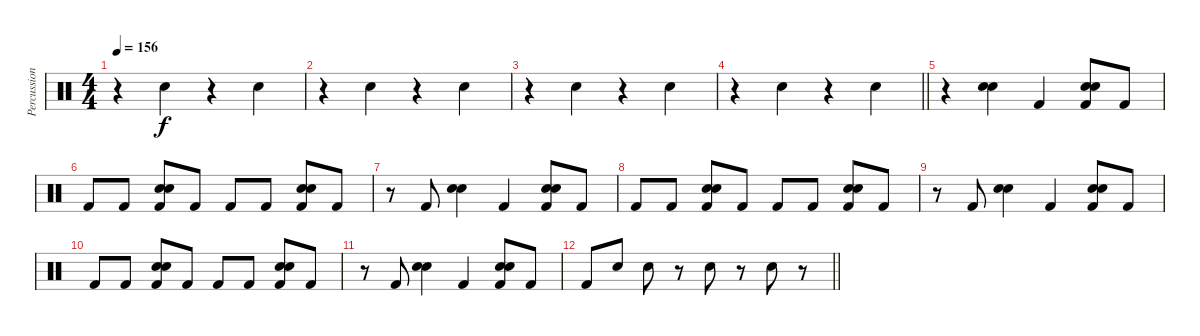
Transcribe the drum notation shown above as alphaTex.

\track ("Percussion" "Percussion") {instrument percussion}
\staff {score}
\articulation defaults
\ts (4 4)
\tempo 156
\clef neutral
\ks c
r.4{dy f} "Hand Clap (hit)".4 r.4 "Hand Clap (hit)".4 |
r.4 "Hand Clap (hit)".4 r.4 "Hand Clap (hit)".4 |
r.4 "Hand Clap (hit)".4 r.4 "Hand Clap (hit)".4 |
\barLineRight lightlight
r.4 "Hand Clap (hit)".4 r.4 "Hand Clap (hit)".4 |
r.4 ("Hand Clap (hit)" "Electric Snare (hit)").4 "Kick (hit) 2".4 ("Hand Clap (hit)" "Electric Snare (hit)" "Kick (hit) 2").8 "Kick (hit) 2".8 |
"Kick (hit) 2".8 "Kick (hit) 2".8 ("Hand Clap (hit)" "Electric Snare (hit)" "Kick (hit) 2").8 "Kick (hit) 2".8 "Kick (hit) 2".8 "Kick (hit) 2".8 ("Hand Clap (hit)" "Electric Snare (hit)" "Kick (hit) 2").8 "Kick (hit) 2".8 |
r.8 "Kick (hit) 2".8 ("Hand Clap (hit)" "Electric Snare (hit)").4 "Kick (hit) 2".4 ("Hand Clap (hit)" "Electric Snare (hit)" "Kick (hit) 2").8 "Kick (hit) 2".8 |
"Kick (hit) 2".8 "Kick (hit) 2".8 ("Hand Clap (hit)" "Electric Snare (hit)" "Kick (hit) 2").8 "Kick (hit) 2".8 "Kick (hit) 2".8 "Kick (hit) 2".8 ("Hand Clap (hit)" "Electric Snare (hit)" "Kick (hit) 2").8 "Kick (hit) 2".8 |
r.8 "Kick (hit) 2".8 ("Hand Clap (hit)" "Electric Snare (hit)").4 "Kick (hit) 2".4 ("Hand Clap (hit)" "Electric Snare (hit)" "Kick (hit) 2").8 "Kick (hit) 2".8 |
"Kick (hit) 2".8 "Kick (hit) 2".8 ("Hand Clap (hit)" "Electric Snare (hit)" "Kick (hit) 2").8 "Kick (hit) 2".8 "Kick (hit) 2".8 "Kick (hit) 2".8 ("Hand Clap (hit)" "Electric Snare (hit)" "Kick (hit) 2").8 "Kick (hit) 2".8 |
r.8 "Kick (hit) 2".8 ("Hand Clap (hit)" "Electric Snare (hit)").4 "Kick (hit) 2".4 ("Hand Clap (hit)" "Electric Snare (hit)" "Kick (hit) 2").8 "Kick (hit) 2".8 |
\barLineRight lightlight "Kick (hit) 2".8 "Electric Snare (hit)".8 "Electric Snare (hit)".8
r.8 "Electric Snare (hit)".8 r.8 "Hand Clap (hit)".8 r.8
